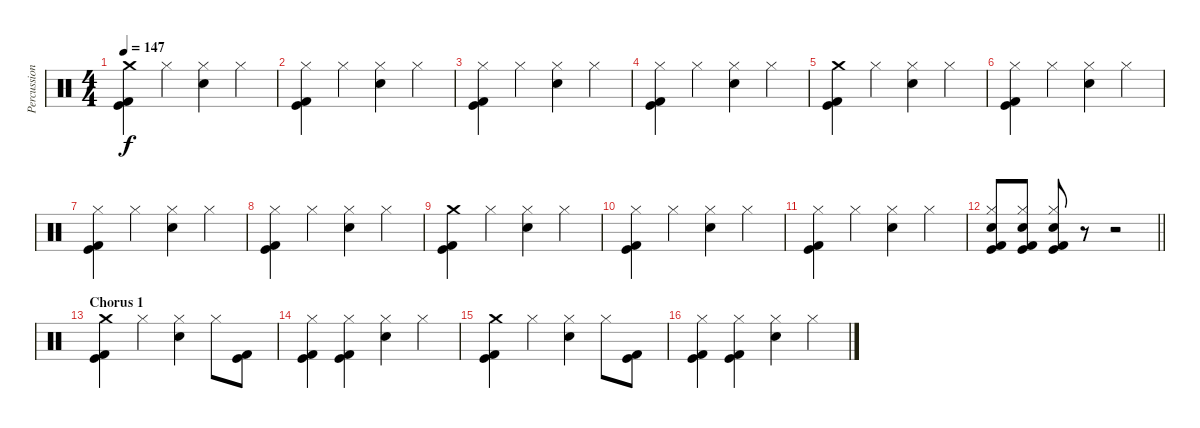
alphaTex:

\track ("Percussion" "Percussion") {instrument percussion}
\staff {score}
\articulation defaults
\ts (4 4)
\tempo 147
\clef neutral
\ks c
("Crash medium (hit)" "Kick (hit) 2" "Kick (hit)").4{dy f} "Hi-Hat (closed)".4 ("Hi-Hat (closed)" "Snare (hit) 2").4 "Hi-Hat (closed)".4 |
("Hi-Hat (closed)" "Kick (hit) 2" "Kick (hit)").4 "Hi-Hat (closed)".4 ("Hi-Hat (closed)" "Snare (hit) 2").4 "Hi-Hat (closed)".4 |
("Hi-Hat (closed)" "Kick (hit) 2" "Kick (hit)").4 "Hi-Hat (closed)".4 ("Hi-Hat (closed)" "Snare (hit) 2").4 "Hi-Hat (closed)".4 |
("Hi-Hat (closed)" "Kick (hit) 2" "Kick (hit)").4 "Hi-Hat (closed)".4 ("Hi-Hat (closed)" "Snare (hit) 2").4 "Hi-Hat (closed)".4 |
("Crash medium (hit)" "Kick (hit) 2" "Kick (hit)").4 "Hi-Hat (closed)".4 ("Hi-Hat (closed)" "Snare (hit) 2").4 "Hi-Hat (closed)".4 |
("Hi-Hat (closed)" "Kick (hit) 2" "Kick (hit)").4 "Hi-Hat (closed)".4 ("Hi-Hat (closed)" "Snare (hit) 2").4 "Hi-Hat (closed)".4 |
("Hi-Hat (closed)" "Kick (hit) 2" "Kick (hit)").4 "Hi-Hat (closed)".4 ("Hi-Hat (closed)" "Snare (hit) 2").4 "Hi-Hat (closed)".4 |
("Hi-Hat (closed)" "Kick (hit) 2" "Kick (hit)").4 "Hi-Hat (closed)".4 ("Hi-Hat (closed)" "Snare (hit) 2").4 "Hi-Hat (closed)".4 |
("Crash medium (hit)" "Kick (hit) 2" "Kick (hit)").4 "Hi-Hat (closed)".4 ("Hi-Hat (closed)" "Snare (hit) 2").4 "Hi-Hat (closed)".4 |
("Hi-Hat (closed)" "Kick (hit) 2" "Kick (hit)").4 "Hi-Hat (closed)".4 ("Hi-Hat (closed)" "Snare (hit) 2").4 "Hi-Hat (closed)".4 |
("Hi-Hat (closed)" "Kick (hit) 2" "Kick (hit)").4 "Hi-Hat (closed)".4 ("Hi-Hat (closed)" "Snare (hit) 2").4 "Hi-Hat (closed)".4 |
\barLineRight lightlight
("Hi-Hat (closed)" "Snare (hit) 2" "Kick (hit) 2" "Kick (hit)").8 ("Hi-Hat (closed)" "Snare (hit) 2" "Kick (hit) 2" "Kick (hit)").8 ("Hi-Hat (closed)" "Snare (hit) 2" "Kick (hit) 2" "Kick (hit)").8 r.8 r.2 |
\section ("" "Chorus 1")
("Crash medium (hit)" "Kick (hit) 2" "Kick (hit)").4 "Hi-Hat (closed)".4 ("Hi-Hat (closed)" "Snare (hit) 2").4 "Hi-Hat (closed)".8 ("Kick (hit) 2" "Kick (hit)").8 |
("Hi-Hat (closed)" "Kick (hit) 2" "Kick (hit)").4 ("Hi-Hat (closed)" "Kick (hit) 2" "Kick (hit)").4 ("Hi-Hat (closed)" "Snare (hit) 2").4 "Hi-Hat (closed)".4 |
("Crash medium (hit)" "Kick (hit) 2" "Kick (hit)").4 "Hi-Hat (closed)".4 ("Hi-Hat (closed)" "Snare (hit) 2").4 "Hi-Hat (closed)".8 ("Kick (hit) 2" "Kick (hit)").8 |
("Hi-Hat (closed)" "Kick (hit) 2" "Kick (hit)").4 ("Hi-Hat (closed)" "Kick (hit) 2" "Kick (hit)").4 ("Hi-Hat (closed)" "Snare (hit) 2").4 "Hi-Hat (closed)".4
